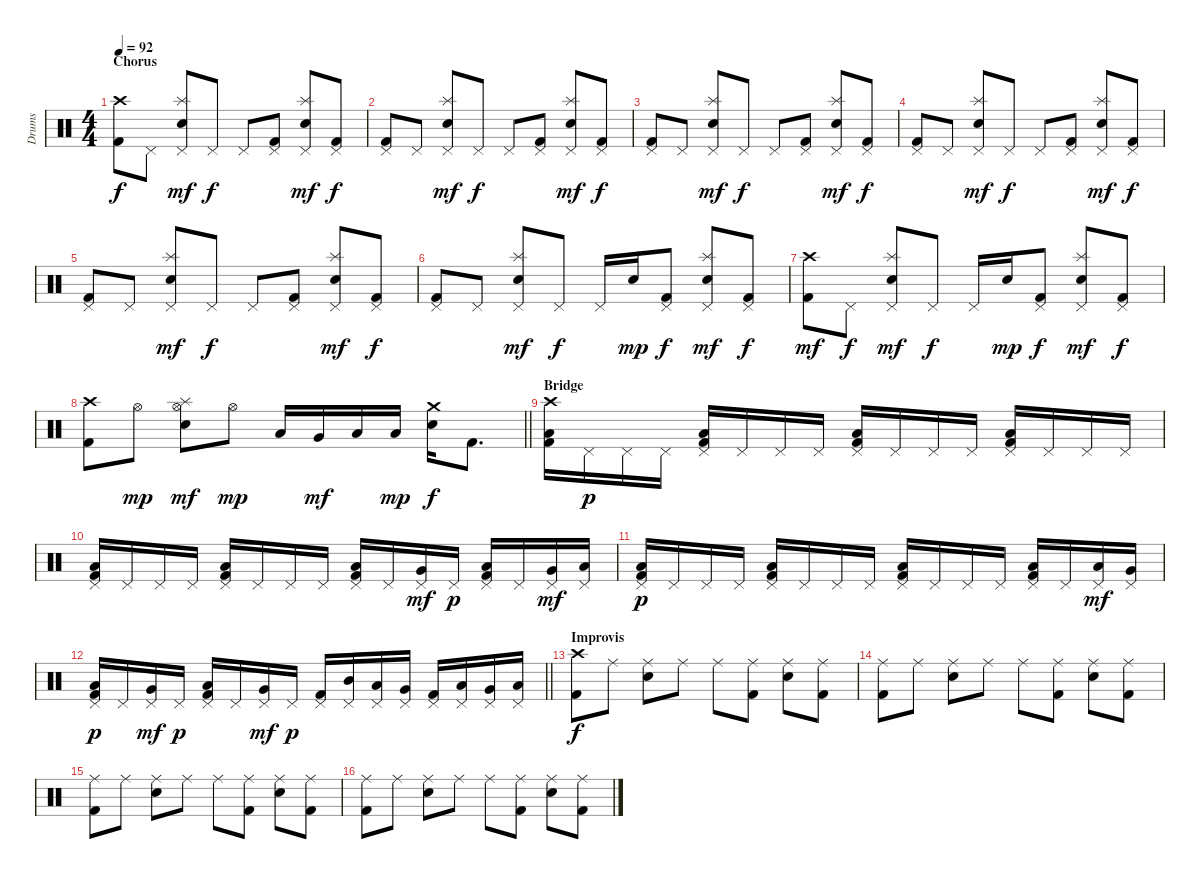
\track ("Drums" "Drums") {instrument percussion}
\staff {score}
\articulation defaults
\ts (4 4)
\section ("" "Chorus")
\tempo 92
\clef neutral
\ks aminor
("Crash high (hit)" "Kick (hit) 2").8{dy f} "Pedal Hi-Hat (hit)".8 ("Pedal Hi-Hat (hit)" "Splash (hit)" "Electric Snare (hit)").8{dy mf} "Pedal Hi-Hat (hit)".8{dy f} "Pedal Hi-Hat (hit)".8 ("Pedal Hi-Hat (hit)" "Kick (hit) 2").8 ("Pedal Hi-Hat (hit)" "Splash (hit)" "Electric Snare (hit)").8{dy mf} ("Pedal Hi-Hat (hit)" "Kick (hit) 2").8{dy f} |
("Pedal Hi-Hat (hit)" "Kick (hit) 2").8 "Pedal Hi-Hat (hit)".8 ("Pedal Hi-Hat (hit)" "Splash (hit)" "Electric Snare (hit)").8{dy mf} "Pedal Hi-Hat (hit)".8{dy f} "Pedal Hi-Hat (hit)".8 ("Pedal Hi-Hat (hit)" "Kick (hit) 2").8 ("Pedal Hi-Hat (hit)" "Splash (hit)" "Electric Snare (hit)").8{dy mf} ("Pedal Hi-Hat (hit)" "Kick (hit) 2").8{dy f} |
("Pedal Hi-Hat (hit)" "Kick (hit) 2").8 "Pedal Hi-Hat (hit)".8 ("Pedal Hi-Hat (hit)" "Splash (hit)" "Electric Snare (hit)").8{dy mf} "Pedal Hi-Hat (hit)".8{dy f} "Pedal Hi-Hat (hit)".8 ("Pedal Hi-Hat (hit)" "Kick (hit) 2").8 ("Pedal Hi-Hat (hit)" "Splash (hit)" "Electric Snare (hit)").8{dy mf} ("Pedal Hi-Hat (hit)" "Kick (hit) 2").8{dy f} |
("Pedal Hi-Hat (hit)" "Kick (hit) 2").8 "Pedal Hi-Hat (hit)".8 ("Pedal Hi-Hat (hit)" "Splash (hit)" "Electric Snare (hit)").8{dy mf} "Pedal Hi-Hat (hit)".8{dy f} "Pedal Hi-Hat (hit)".8 ("Pedal Hi-Hat (hit)" "Kick (hit) 2").8 ("Pedal Hi-Hat (hit)" "Splash (hit)" "Electric Snare (hit)").8{dy mf} ("Pedal Hi-Hat (hit)" "Kick (hit) 2").8{dy f} |
("Pedal Hi-Hat (hit)" "Kick (hit) 2").8 "Pedal Hi-Hat (hit)".8 ("Pedal Hi-Hat (hit)" "Splash (hit)" "Electric Snare (hit)").8{dy mf} "Pedal Hi-Hat (hit)".8{dy f} "Pedal Hi-Hat (hit)".8 ("Pedal Hi-Hat (hit)" "Kick (hit) 2").8 ("Pedal Hi-Hat (hit)" "Splash (hit)" "Electric Snare (hit)").8{dy mf} ("Pedal Hi-Hat (hit)" "Kick (hit) 2").8{dy f} |
("Pedal Hi-Hat (hit)" "Kick (hit) 2").8 "Pedal Hi-Hat (hit)".8 ("Pedal Hi-Hat (hit)" "Splash (hit)" "Electric Snare (hit)").8{dy mf} "Pedal Hi-Hat (hit)".8{dy f} "Pedal Hi-Hat (hit)".16 "Electric Snare (hit)".16{dy mp} ("Pedal Hi-Hat (hit)" "Kick (hit) 2").8{dy f} ("Pedal Hi-Hat (hit)" "Splash (hit)" "Electric Snare (hit)").8{dy mf} ("Pedal Hi-Hat (hit)" "Kick (hit) 2").8{dy f} |
("Crash high (hit)" "Kick (hit) 2").8{dy mf} "Pedal Hi-Hat (hit)".8{dy f} ("Pedal Hi-Hat (hit)" "Splash (hit)" "Electric Snare (hit)").8{dy mf} "Pedal Hi-Hat (hit)".8{dy f} "Pedal Hi-Hat (hit)".16 "Electric Snare (hit)".16{dy mp} ("Pedal Hi-Hat (hit)" "Kick (hit) 2").8{dy f} ("Pedal Hi-Hat (hit)" "Splash (hit)" "Electric Snare (hit)").8{dy mf} ("Pedal Hi-Hat (hit)" "Kick (hit) 2").8{dy f} |
\barLineRight lightlight
("Crash high (hit)" "Kick (hit) 2").8 "Hi-Hat (open)".8{dy mp} ("Hi-Hat (open)" "Splash (hit)" "Electric Snare (hit)").8{dy mf} "Hi-Hat (open)".8{dy mp} "Low Floor Tom (hit)".16 "Very Low Tom (hit)".16{dy mf} "Low Tom (hit)".16 "Low Floor Tom (hit)".16{dy mp} ("Crash medium (hit)" "Electric Snare (hit)").16{dy f} "Kick (hit) 2".8{d} |
\section ("" "Bridge")
("Crash high (hit)" "Low Floor Tom (hit)" "Kick (hit) 2").16 "Pedal Hi-Hat (hit)".16{dy p} "Pedal Hi-Hat (hit)".16 "Pedal Hi-Hat (hit)".16 ("Pedal Hi-Hat (hit)" "Low Floor Tom (hit)" "Kick (hit) 2").16 "Pedal Hi-Hat (hit)".16 "Pedal Hi-Hat (hit)".16 "Pedal Hi-Hat (hit)".16 ("Pedal Hi-Hat (hit)" "Low Floor Tom (hit)" "Kick (hit) 2").16 "Pedal Hi-Hat (hit)".16 "Pedal Hi-Hat (hit)".16 "Pedal Hi-Hat (hit)".16 ("Pedal Hi-Hat (hit)" "Low Floor Tom (hit)" "Kick (hit) 2").16 "Pedal Hi-Hat (hit)".16 "Pedal Hi-Hat (hit)".16 "Pedal Hi-Hat (hit)".16 |
("Pedal Hi-Hat (hit)" "Low Floor Tom (hit)" "Kick (hit) 2").16 "Pedal Hi-Hat (hit)".16 "Pedal Hi-Hat (hit)".16 "Pedal Hi-Hat (hit)".16 ("Pedal Hi-Hat (hit)" "Low Floor Tom (hit)" "Kick (hit) 2").16 "Pedal Hi-Hat (hit)".16 "Pedal Hi-Hat (hit)".16 "Pedal Hi-Hat (hit)".16 ("Pedal Hi-Hat (hit)" "Low Floor Tom (hit)" "Kick (hit) 2").16 "Pedal Hi-Hat (hit)".16 ("Pedal Hi-Hat (hit)" "Very Low Tom (hit)").16{dy mf} "Pedal Hi-Hat (hit)".16{dy p} ("Pedal Hi-Hat (hit)" "Low Tom (hit)" "Kick (hit) 2").16 "Pedal Hi-Hat (hit)".16 ("Pedal Hi-Hat (hit)" "Very Low Tom (hit)").16{dy mf} ("Pedal Hi-Hat (hit)" "Low Floor Tom (hit)").16 |
("Pedal Hi-Hat (hit)" "Low Floor Tom (hit)" "Kick (hit) 2").16{dy p} "Pedal Hi-Hat (hit)".16 "Pedal Hi-Hat (hit)".16 "Pedal Hi-Hat (hit)".16 ("Pedal Hi-Hat (hit)" "Low Floor Tom (hit)" "Kick (hit) 2").16 "Pedal Hi-Hat (hit)".16 "Pedal Hi-Hat (hit)".16 "Pedal Hi-Hat (hit)".16 ("Pedal Hi-Hat (hit)" "Low Floor Tom (hit)" "Kick (hit) 2").16 "Pedal Hi-Hat (hit)".16 "Pedal Hi-Hat (hit)".16 "Pedal Hi-Hat (hit)".16 ("Pedal Hi-Hat (hit)" "Low Floor Tom (hit)" "Kick (hit) 2").16 "Pedal Hi-Hat (hit)".16 ("Pedal Hi-Hat (hit)" "Low Tom (hit)").16{dy mf} ("Pedal Hi-Hat (hit)" "Very Low Tom (hit)").16 |
\barLineRight lightlight
("Pedal Hi-Hat (hit)" "Low Floor Tom (hit)" "Kick (hit) 2").16{dy p} "Pedal Hi-Hat (hit)".16 ("Pedal Hi-Hat (hit)" "Very Low Tom (hit)").16{dy mf} "Pedal Hi-Hat (hit)".16{dy p} ("Pedal Hi-Hat (hit)" "Low Floor Tom (hit)" "Kick (hit) 2").16 "Pedal Hi-Hat (hit)".16 ("Pedal Hi-Hat (hit)" "Very Low Tom (hit)").16{dy mf} "Pedal Hi-Hat (hit)".16{dy p} ("Pedal Hi-Hat (hit)" "Kick (hit) 2").16 ("Pedal Hi-Hat (hit)" "Mid Tom (hit)").16 ("Pedal Hi-Hat (hit)" "Low Tom (hit)").16 ("Pedal Hi-Hat (hit)" "Very Low Tom (hit)").16 ("Pedal Hi-Hat (hit)" "Kick (hit) 2").16 ("Pedal Hi-Hat (hit)" "Low Tom (hit)").16 ("Pedal Hi-Hat (hit)" "Very Low Tom (hit)").16 ("Pedal Hi-Hat (hit)" "Low Floor Tom (hit)").16 |
\section ("" "Improvis")
("Crash high (hit)" "Kick (hit) 2").8{dy f} "Ride (middle)".8 ("Ride (middle)" "Electric Snare (hit)").8 "Ride (middle)".8 "Ride (middle)".8 ("Ride (middle)" "Kick (hit) 2").8 ("Ride (middle)" "Electric Snare (hit)").8 ("Ride (middle)" "Kick (hit) 2").8 |
("Ride (middle)" "Kick (hit) 2").8 "Ride (middle)".8 ("Ride (middle)" "Electric Snare (hit)").8 "Ride (middle)".8 "Ride (middle)".8 ("Ride (middle)" "Kick (hit) 2").8 ("Ride (middle)" "Electric Snare (hit)").8 ("Ride (middle)" "Kick (hit) 2").8 |
("Ride (middle)" "Kick (hit) 2").8 "Ride (middle)".8 ("Ride (middle)" "Electric Snare (hit)").8 "Ride (middle)".8 "Ride (middle)".8 ("Ride (middle)" "Kick (hit) 2").8 ("Ride (middle)" "Electric Snare (hit)").8 ("Ride (middle)" "Kick (hit) 2").8 |
("Ride (middle)" "Kick (hit) 2").8 "Ride (middle)".8 ("Ride (middle)" "Electric Snare (hit)").8 "Ride (middle)".8 "Ride (middle)".8 ("Ride (middle)" "Kick (hit) 2").8 ("Ride (middle)" "Electric Snare (hit)").8 ("Ride (middle)" "Kick (hit) 2").8
